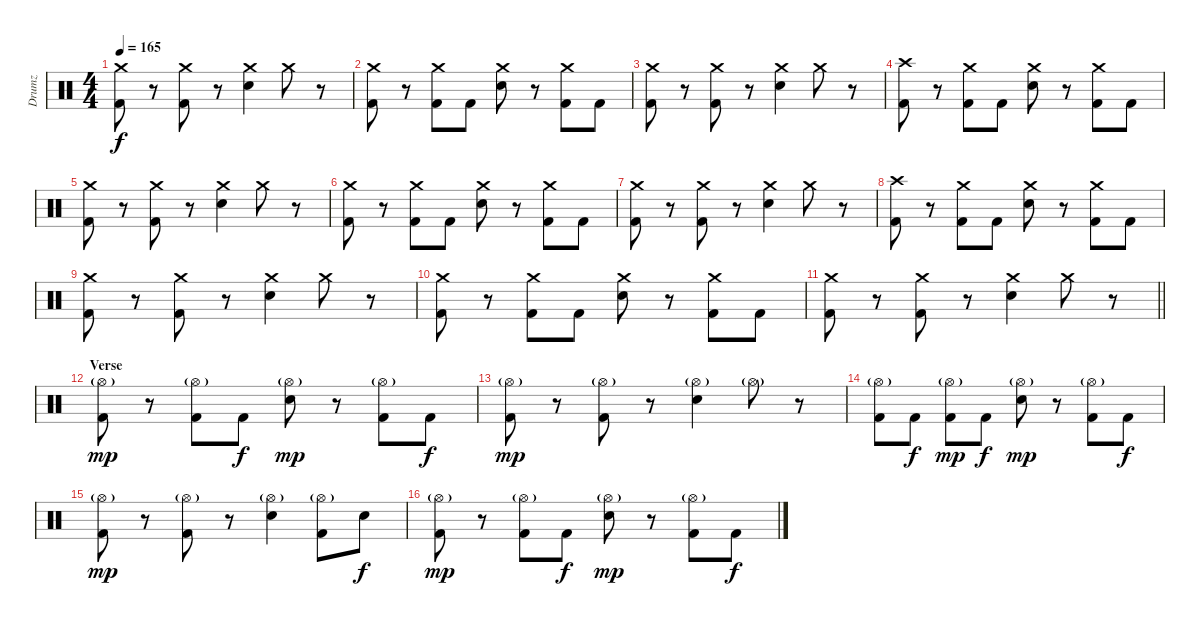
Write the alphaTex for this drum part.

\track ("Drumz" "Drumz") {instrument percussion}
\staff {score}
\articulation defaults
\ts (4 4)
\tempo 165
\clef neutral
\ks c
("Crash medium (hit)" "Kick (hit) 2").8{dy f} r.8 ("Crash medium (hit)" "Kick (hit) 2").8 r.8 ("Crash medium (hit)" "Snare (hit) 2").4 "Crash medium (hit)".8 r.8 |
("Crash medium (hit)" "Kick (hit) 2").8 r.8 ("Crash medium (hit)" "Kick (hit) 2").8 "Kick (hit) 2".8 ("Crash medium (hit)" "Electric Snare (hit)").8 r.8 ("Kick (hit) 2" "Crash medium (hit)").8 "Kick (hit) 2".8 |
("Crash medium (hit)" "Kick (hit) 2").8 r.8 ("Crash medium (hit)" "Kick (hit) 2").8 r.8 ("Crash medium (hit)" "Snare (hit) 2").4 "Crash medium (hit)".8 r.8 |
("Kick (hit) 2" "Crash high (hit)").8 r.8 ("Crash medium (hit)" "Kick (hit) 2").8 "Kick (hit) 2".8 ("Crash medium (hit)" "Electric Snare (hit)").8 r.8 ("Kick (hit) 2" "Crash medium (hit)").8 "Kick (hit) 2".8 |
("Crash medium (hit)" "Kick (hit) 2").8 r.8 ("Crash medium (hit)" "Kick (hit) 2").8 r.8 ("Crash medium (hit)" "Snare (hit) 2").4 "Crash medium (hit)".8 r.8 |
("Crash medium (hit)" "Kick (hit) 2").8 r.8 ("Crash medium (hit)" "Kick (hit) 2").8 "Kick (hit) 2".8 ("Crash medium (hit)" "Electric Snare (hit)").8 r.8 ("Kick (hit) 2" "Crash medium (hit)").8 "Kick (hit) 2".8 |
("Crash medium (hit)" "Kick (hit) 2").8 r.8 ("Crash medium (hit)" "Kick (hit) 2").8 r.8 ("Crash medium (hit)" "Snare (hit) 2").4 "Crash medium (hit)".8 r.8 |
("Kick (hit) 2" "Crash high (hit)").8 r.8 ("Crash medium (hit)" "Kick (hit) 2").8 "Kick (hit) 2".8 ("Crash medium (hit)" "Electric Snare (hit)").8 r.8 ("Kick (hit) 2" "Crash medium (hit)").8 "Kick (hit) 2".8 |
("Crash medium (hit)" "Kick (hit) 2").8 r.8 ("Crash medium (hit)" "Kick (hit) 2").8 r.8 ("Crash medium (hit)" "Snare (hit) 2").4 "Crash medium (hit)".8 r.8 |
("Crash medium (hit)" "Kick (hit) 2").8 r.8 ("Crash medium (hit)" "Kick (hit) 2").8 "Kick (hit) 2".8 ("Crash medium (hit)" "Electric Snare (hit)").8 r.8 ("Kick (hit) 2" "Crash medium (hit)").8 "Kick (hit) 2".8 |
\barLineRight lightlight
("Crash medium (hit)" "Kick (hit) 2").8 r.8 ("Crash medium (hit)" "Kick (hit) 2").8 r.8 ("Crash medium (hit)" "Snare (hit) 2").4 "Crash medium (hit)".8 r.8 |
\section ("" "Verse")
("Hi-Hat (open)"{g} "Kick (hit) 2").8{dy mp} r.8 ("Hi-Hat (open)"{g} "Kick (hit) 2").8 "Kick (hit) 2".8{dy f} ("Hi-Hat (open)"{g} "Snare (hit) 2").8{dy mp} r.8 ("Hi-Hat (open)"{g} "Kick (hit) 2").8 "Kick (hit) 2".8{dy f} |
("Hi-Hat (open)"{g} "Kick (hit) 2").8{dy mp} r.8 ("Hi-Hat (open)"{g} "Kick (hit) 2").8 r.8 ("Hi-Hat (open)"{g} "Snare (hit) 2").4 "Hi-Hat (open)"{g}.8 r.8 |
("Hi-Hat (open)"{g} "Kick (hit) 2").8 "Kick (hit) 2".8{dy f} ("Hi-Hat (open)"{g} "Kick (hit) 2").8{dy mp} "Kick (hit) 2".8{dy f} ("Hi-Hat (open)"{g} "Snare (hit) 2").8{dy mp} r.8 ("Kick (hit) 2" "Hi-Hat (open)"{g}).8 "Kick (hit) 2".8{dy f} |
("Hi-Hat (open)"{g} "Kick (hit) 2").8{dy mp} r.8 ("Hi-Hat (open)"{g} "Kick (hit) 2").8 r.8 ("Hi-Hat (open)"{g} "Snare (hit) 2").4 ("Hi-Hat (open)"{g} "Kick (hit) 2").8 "Snare (hit) 2".8{dy f} |
("Hi-Hat (open)"{g} "Kick (hit) 2").8{dy mp} r.8 ("Hi-Hat (open)"{g} "Kick (hit) 2").8 "Kick (hit) 2".8{dy f} ("Hi-Hat (open)"{g} "Snare (hit) 2").8{dy mp} r.8 ("Hi-Hat (open)"{g} "Kick (hit) 2").8 "Kick (hit) 2".8{dy f}
